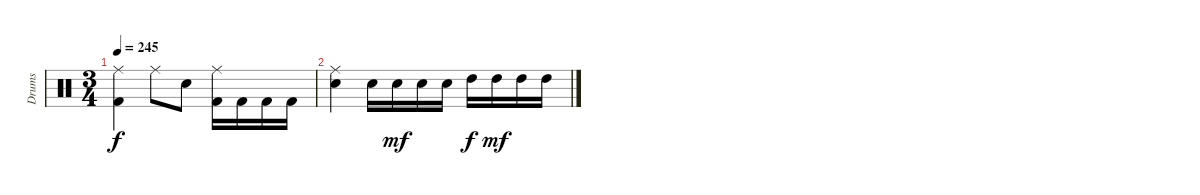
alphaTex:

\track ("Drums" "Drums") {instrument percussion}
\staff {score}
\articulation defaults
\ts (3 4)
\tempo 245
\clef neutral
\ks c
("Ride (middle)" "Kick (hit) 2").4{dy f} "Ride (middle)".8 "Electric Snare (hit)".8 ("Ride (middle)" "Kick (hit) 2").16 "Kick (hit) 2".16 "Kick (hit) 2".16 "Kick (hit) 2".16 |
("Ride (middle)" "Electric Snare (hit)").4 "Electric Snare (hit)".16 "Electric Snare (hit)".16{dy mf} "Electric Snare (hit)".16 "Electric Snare (hit)".16 "High Tom (hit)".16{dy f} "High Tom (hit)".16{dy mf} "High Tom (hit)".16 "High Tom (hit)".16
